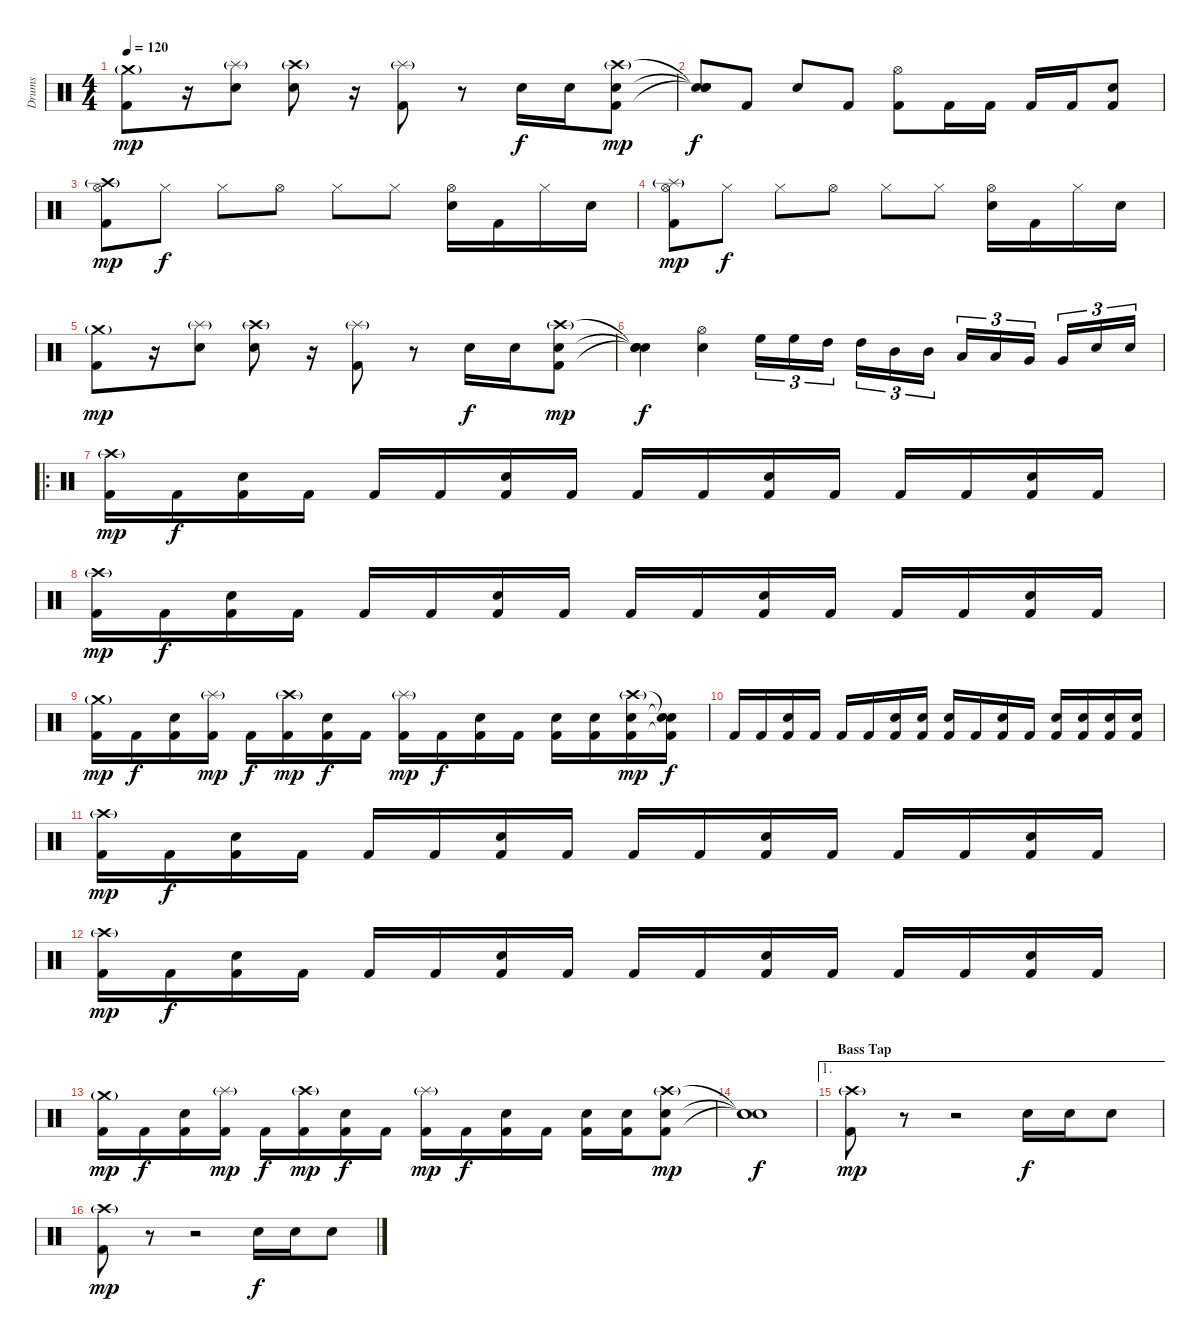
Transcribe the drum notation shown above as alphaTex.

\track ("Drums" "Drums") {instrument percussion}
\staff {score}
\articulation defaults
\ts (4 4)
\tempo 120
\clef neutral
\ks c
("Crash medium (hit)"{g} "Kick (hit) 2").8{dy mp} r.16 ("Splash (hit)"{g} "Electric Snare (hit)").8 ("Crash high (hit)"{g} "Electric Snare (hit)").8 r.16 ("Splash (hit)"{g} "Kick (hit) 2").8 r.8 "Electric Snare (hit)".16{dy f} "Electric Snare (hit)".16 ("Crash high (hit)"{g} "Electric Snare (hit)" "Kick (hit) 2").8{dy mp} |
("Snare (hit)"{t} "Snare (hit)"{t} "Snare (hit)"{t}).8{dy f} "Kick (hit) 2".8 "Electric Snare (hit)".8 "Kick (hit) 2".8 ("Hi-Hat (open)" "Kick (hit) 2").8 "Kick (hit) 2".16 "Kick (hit) 2".16 "Kick (hit) 2".16 "Kick (hit) 2".16 ("Electric Snare (hit)" "Kick (hit) 2").8 |
("Crash high (hit)"{g} "Hi-Hat (open)" "Kick (hit) 2").8{dy mp} "Hi-Hat (closed)".8{dy f} "Hi-Hat (closed)".8 "Hi-Hat (open)".8 "Hi-Hat (closed)".8 "Hi-Hat (closed)".8 ("Hi-Hat (open)" "Electric Snare (hit)").16 "Kick (hit) 2".16 "Hi-Hat (closed)".16 "Electric Snare (hit)".16 |
("Splash (hit)"{g} "Hi-Hat (open)" "Kick (hit) 2").8{dy mp} "Hi-Hat (closed)".8{dy f} "Hi-Hat (closed)".8 "Hi-Hat (open)".8 "Hi-Hat (closed)".8 "Hi-Hat (closed)".8 ("Hi-Hat (open)" "Electric Snare (hit)").16 "Kick (hit) 2".16 "Hi-Hat (closed)".16 "Electric Snare (hit)".16 |
("Crash medium (hit)"{g} "Kick (hit) 2").8{dy mp} r.16 ("Splash (hit)"{g} "Electric Snare (hit)").8 ("Crash high (hit)"{g} "Electric Snare (hit)").8 r.16 ("Splash (hit)"{g} "Kick (hit) 2").8 r.8 "Electric Snare (hit)".16{dy f} "Electric Snare (hit)".16 ("Crash high (hit)"{g} "Electric Snare (hit)" "Kick (hit) 2").8{dy mp} |
("Snare (hit)"{t} "Snare (hit)"{t} "Snare (hit)"{t}).4{dy f} ("Hi-Hat (open)" "Electric Snare (hit)").4 "High Floor Tom (hit)".16{tu (3 2)} "High Floor Tom (hit)".16{tu (3 2)} "High Tom (hit)".16{tu (3 2)} "High Tom (hit)".16{tu (3 2)} "Mid Tom (hit)".16{tu (3 2)} "Mid Tom (hit)".16{tu (3 2)} "Low Tom (hit)".16{tu (3 2)} "Low Tom (hit)".16{tu (3 2)} "Very Low Tom (hit)".16{tu (3 2)} "Very Low Tom (hit)".16{tu (3 2)} "Electric Snare (hit)".16{tu (3 2)} "Electric Snare (hit)".16{tu (3 2)} |
\ro
("Crash high (hit)"{g} "Kick (hit) 2").16{dy mp} "Kick (hit) 2".16{dy f} ("Electric Snare (hit)" "Kick (hit) 2").16 "Kick (hit) 2".16 "Kick (hit) 2".16 "Kick (hit) 2".16 ("Electric Snare (hit)" "Kick (hit) 2").16 "Kick (hit) 2".16 "Kick (hit) 2".16 "Kick (hit) 2".16 ("Electric Snare (hit)" "Kick (hit) 2").16 "Kick (hit) 2".16 "Kick (hit) 2".16 "Kick (hit) 2".16 ("Electric Snare (hit)" "Kick (hit) 2").16 "Kick (hit) 2".16 |
("Crash high (hit)"{g} "Kick (hit) 2").16{dy mp} "Kick (hit) 2".16{dy f} ("Electric Snare (hit)" "Kick (hit) 2").16 "Kick (hit) 2".16 "Kick (hit) 2".16 "Kick (hit) 2".16 ("Electric Snare (hit)" "Kick (hit) 2").16 "Kick (hit) 2".16 "Kick (hit) 2".16 "Kick (hit) 2".16 ("Electric Snare (hit)" "Kick (hit) 2").16 "Kick (hit) 2".16 "Kick (hit) 2".16 "Kick (hit) 2".16 ("Electric Snare (hit)" "Kick (hit) 2").16 "Kick (hit) 2".16 |
("Crash medium (hit)"{g} "Kick (hit) 2").16{dy mp} "Kick (hit) 2".16{dy f} ("Electric Snare (hit)" "Kick (hit) 2").16 ("Splash (hit)"{g} "Kick (hit) 2").16{dy mp} "Kick (hit) 2".16{dy f} ("Crash high (hit)"{g} "Kick (hit) 2").16{dy mp} ("Electric Snare (hit)" "Kick (hit) 2").16{dy f} "Kick (hit) 2".16 ("Splash (hit)"{g} "Kick (hit) 2").16{dy mp} "Kick (hit) 2".16{dy f} ("Electric Snare (hit)" "Kick (hit) 2").16 "Kick (hit) 2".16 ("Electric Snare (hit)" "Kick (hit) 2").16 ("Electric Snare (hit)" "Kick (hit) 2").16 ("Crash high (hit)"{g} "Electric Snare (hit)" "Kick (hit) 2").16{dy mp} ("Snare (hit)"{t} "Snare (hit)"{t} "Kick (hit) 2"{t}).16{dy f} |
"Kick (hit) 2".16 "Kick (hit) 2".16 ("Electric Snare (hit)" "Kick (hit) 2").16 "Kick (hit) 2".16 "Kick (hit) 2".16 "Kick (hit) 2".16 ("Electric Snare (hit)" "Kick (hit) 2").16 ("Electric Snare (hit)" "Kick (hit) 2").16 ("Electric Snare (hit)" "Kick (hit) 2").16 "Kick (hit) 2".16 ("Electric Snare (hit)" "Kick (hit) 2").16 "Kick (hit) 2".16 ("Electric Snare (hit)" "Kick (hit) 2").16 ("Electric Snare (hit)" "Kick (hit) 2").16 ("Electric Snare (hit)" "Kick (hit) 2").16 ("Electric Snare (hit)" "Kick (hit) 2").16 |
("Crash high (hit)"{g} "Kick (hit) 2").16{dy mp} "Kick (hit) 2".16{dy f} ("Electric Snare (hit)" "Kick (hit) 2").16 "Kick (hit) 2".16 "Kick (hit) 2".16 "Kick (hit) 2".16 ("Electric Snare (hit)" "Kick (hit) 2").16 "Kick (hit) 2".16 "Kick (hit) 2".16 "Kick (hit) 2".16 ("Electric Snare (hit)" "Kick (hit) 2").16 "Kick (hit) 2".16 "Kick (hit) 2".16 "Kick (hit) 2".16 ("Electric Snare (hit)" "Kick (hit) 2").16 "Kick (hit) 2".16 |
("Crash high (hit)"{g} "Kick (hit) 2").16{dy mp} "Kick (hit) 2".16{dy f} ("Electric Snare (hit)" "Kick (hit) 2").16 "Kick (hit) 2".16 "Kick (hit) 2".16 "Kick (hit) 2".16 ("Electric Snare (hit)" "Kick (hit) 2").16 "Kick (hit) 2".16 "Kick (hit) 2".16 "Kick (hit) 2".16 ("Electric Snare (hit)" "Kick (hit) 2").16 "Kick (hit) 2".16 "Kick (hit) 2".16 "Kick (hit) 2".16 ("Electric Snare (hit)" "Kick (hit) 2").16 "Kick (hit) 2".16 |
("Crash medium (hit)"{g} "Kick (hit) 2").16{dy mp} "Kick (hit) 2".16{dy f} ("Electric Snare (hit)" "Kick (hit) 2").16 ("Splash (hit)"{g} "Kick (hit) 2").16{dy mp} "Kick (hit) 2".16{dy f} ("Crash high (hit)"{g} "Kick (hit) 2").16{dy mp} ("Electric Snare (hit)" "Kick (hit) 2").16{dy f} "Kick (hit) 2".16 ("Splash (hit)"{g} "Kick (hit) 2").16{dy mp} "Kick (hit) 2".16{dy f} ("Electric Snare (hit)" "Kick (hit) 2").16 "Kick (hit) 2".16 ("Electric Snare (hit)" "Kick (hit) 2").16 ("Electric Snare (hit)" "Kick (hit) 2").16 ("Crash high (hit)"{g} "Electric Snare (hit)" "Kick (hit) 2").8{dy mp} |
("Snare (hit)"{t} "Snare (hit)"{t} "Snare (hit)"{t}).1{dy f} |
\ae 1
\section ("" "Bass Tap")
("Crash high (hit)"{g} "Kick (hit) 2").8{dy mp} r.8 r.2 "Electric Snare (hit)".16{dy f} "Electric Snare (hit)".16 "Electric Snare (hit)".8 |
("Crash high (hit)"{g} "Kick (hit) 2").8{dy mp} r.8 r.2 "Electric Snare (hit)".16{dy f} "Electric Snare (hit)".16 "Electric Snare (hit)".8
